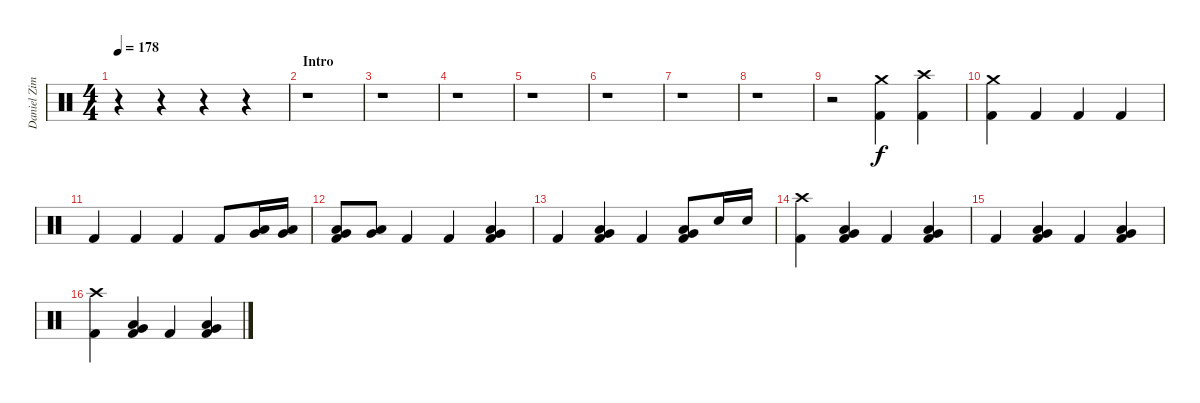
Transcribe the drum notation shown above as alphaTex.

\track ("Daniel Zimmermann" "Daniel Zim") {instrument percussion}
\staff {score}
\articulation defaults
\ts (4 4)
\tempo 178
\clef neutral
\ks c
r.4{dy f} r.4 r.4 r.4 |
\section ("" "Intro")
r.1 |
r.1 |
r.1 |
r.1 |
r.1 |
r.1 |
r.1 |
r.2 ("Kick (hit) 2" "Crash medium (hit)").4 ("Kick (hit) 2" "Crash high (hit)").4 |
("Kick (hit) 2" "Crash medium (hit)").4 "Kick (hit) 2".4 "Kick (hit) 2".4 "Kick (hit) 2".4 |
"Kick (hit) 2".4 "Kick (hit) 2".4 "Kick (hit) 2".4 "Kick (hit) 2".8 ("Low Tom (hit)" "Very Low Tom (hit)").16 ("Low Tom (hit)" "Very Low Tom (hit)").16 |
("Kick (hit) 2" "Low Tom (hit)" "Very Low Tom (hit)").8 ("Low Tom (hit)" "Very Low Tom (hit)").8 "Kick (hit) 2".4 "Kick (hit) 2".4 ("Kick (hit) 2" "Low Tom (hit)" "Very Low Tom (hit)").4 |
"Kick (hit) 2".4 ("Kick (hit) 2" "Low Tom (hit)" "Very Low Tom (hit)").4 "Kick (hit) 2".4 ("Kick (hit) 2" "Low Tom (hit)" "Very Low Tom (hit)").8 "Electric Snare (hit)".16 "Electric Snare (hit)".16 |
("Kick (hit) 2" "Crash high (hit)").4 ("Kick (hit) 2" "Low Tom (hit)" "Very Low Tom (hit)").4 "Kick (hit) 2".4 ("Kick (hit) 2" "Low Tom (hit)" "Very Low Tom (hit)").4 |
"Kick (hit) 2".4 ("Kick (hit) 2" "Low Tom (hit)" "Very Low Tom (hit)").4 "Kick (hit) 2".4 ("Kick (hit) 2" "Low Tom (hit)" "Very Low Tom (hit)").4 |
("Kick (hit) 2" "Crash high (hit)").4 ("Kick (hit) 2" "Low Tom (hit)" "Very Low Tom (hit)").4 "Kick (hit) 2".4 ("Kick (hit) 2" "Low Tom (hit)" "Very Low Tom (hit)").4
